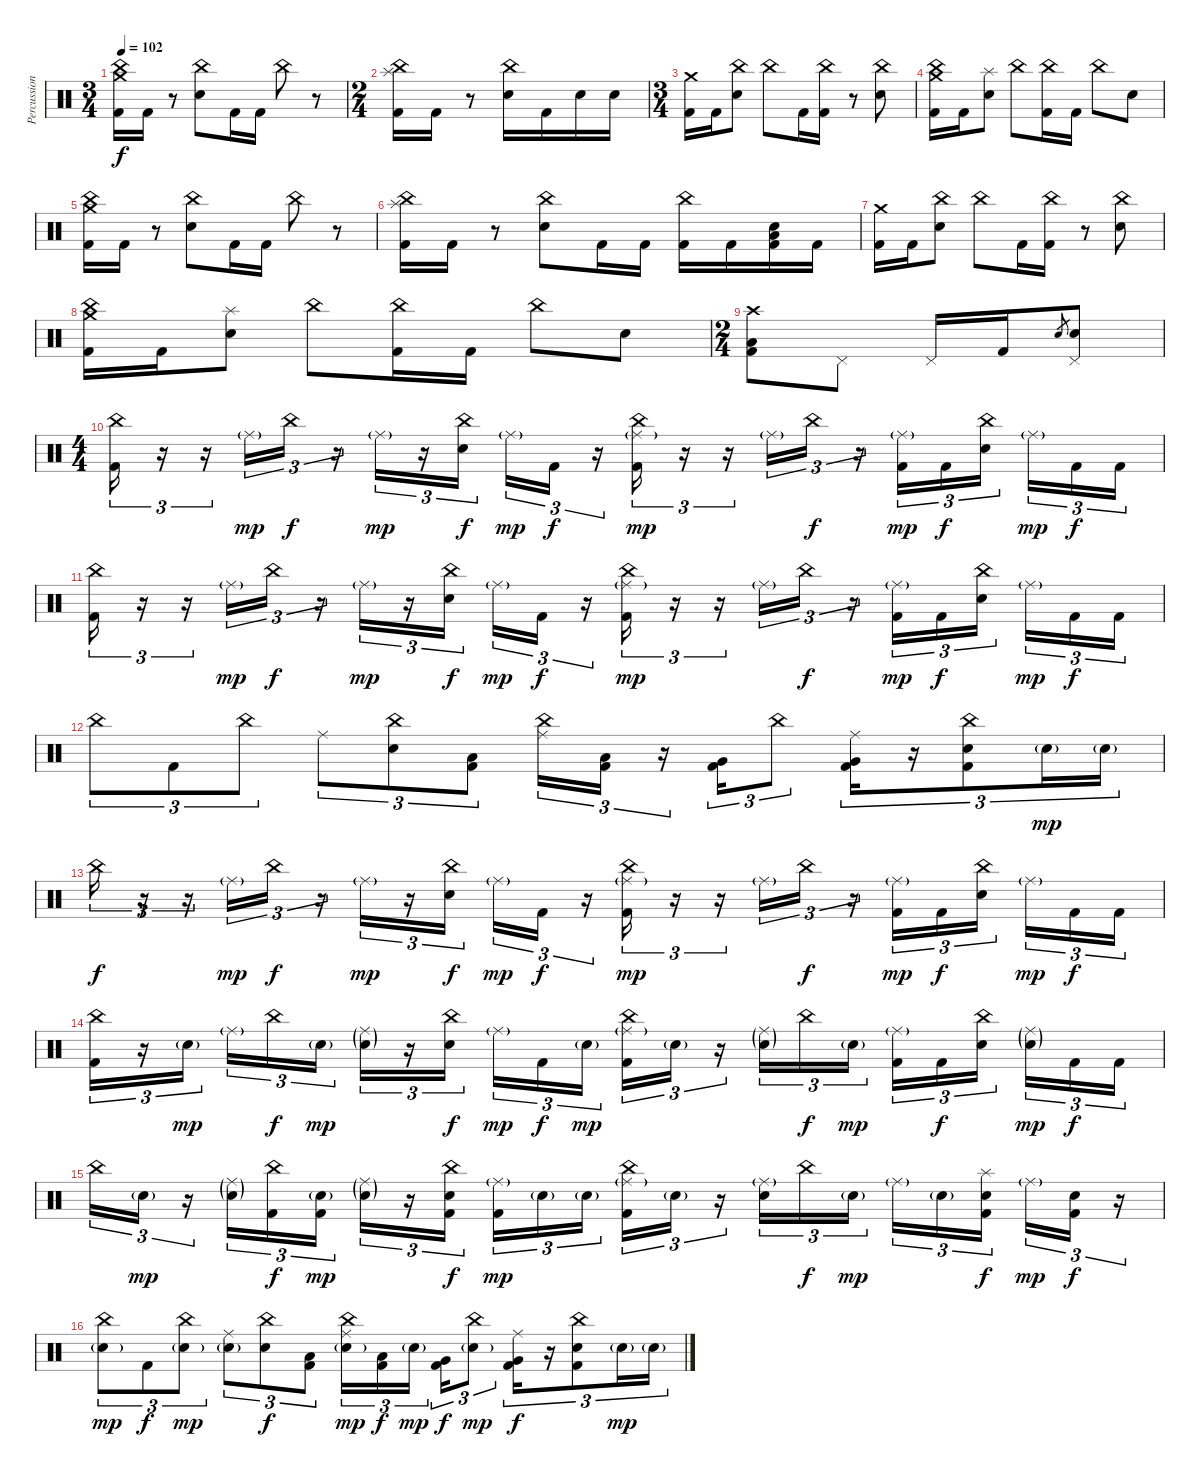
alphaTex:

\track ("Percussion" "Percussion") {instrument percussion}
\staff {score}
\articulation defaults
\ts (3 4)
\tempo 102
\clef neutral
\ks c
("Crash medium (hit)" "China (hit)" "Kick (hit) 2").16{dy f} "Kick (hit) 2".16 r.8 ("China (hit)" "Electric Snare (hit)").8 "Kick (hit) 2".16 "Kick (hit) 2".16 "China (hit)".8 r.8 |
\ts (2 4)
("China (hit)" "Splash (hit)" "Kick (hit) 2").16 "Kick (hit) 2".16 r.8 ("China (hit)" "Electric Snare (hit)").16 "Kick (hit) 2".16 "Electric Snare (hit)".16 "Electric Snare (hit)".16 |
\ts (3 4)
("Crash medium (hit)" "Kick (hit) 2").16 "Kick (hit) 2".16 ("China (hit)" "Electric Snare (hit)").8 "China (hit)".8 "Kick (hit) 2".16 ("China (hit)" "Kick (hit) 2").16 r.8 ("China (hit)" "Electric Snare (hit)").8 |
("Crash medium (hit)" "China (hit)" "Kick (hit) 2").16 "Kick (hit) 2".16 ("Splash (hit)" "Electric Snare (hit)").8 "China (hit)".8 ("China (hit)" "Kick (hit) 2").16 "Kick (hit) 2".16 "China (hit)".8 "Electric Snare (hit)".8 |
("Crash medium (hit)" "China (hit)" "Kick (hit) 2").16 "Kick (hit) 2".16 r.8 ("China (hit)" "Electric Snare (hit)").8 "Kick (hit) 2".16 "Kick (hit) 2".16 "China (hit)".8 r.8 |
("China (hit)" "Splash (hit)" "Kick (hit) 2").16 "Kick (hit) 2".16 r.8 ("China (hit)" "Electric Snare (hit)").8 "Kick (hit) 2".16 "Kick (hit) 2".16 ("China (hit)" "Kick (hit) 2").16 "Kick (hit) 2".16 ("Low Floor Tom (hit)" "Electric Snare (hit)" "Kick (hit) 2").16 "Kick (hit) 2".16 |
("Crash medium (hit)" "Kick (hit) 2").16 "Kick (hit) 2".16 ("China (hit)" "Electric Snare (hit)").8 "China (hit)".8 "Kick (hit) 2".16 ("China (hit)" "Kick (hit) 2").16 r.8 ("China (hit)" "Electric Snare (hit)").8 |
("Crash medium (hit)" "China (hit)" "Kick (hit) 2").16 "Kick (hit) 2".16 ("Splash (hit)" "Electric Snare (hit)").8 "China (hit)".8 ("China (hit)" "Kick (hit) 2").16 "Kick (hit) 2".16 "China (hit)".8 "Electric Snare (hit)".8 |
\ts (2 4)
("Crash high (hit)" "Low Floor Tom (hit)" "Kick (hit) 2").8 "Pedal Hi-Hat (hit)".8 "Pedal Hi-Hat (hit)".16 "Kick (hit) 2".16 "Electric Snare (hit)".8{gr} ("Pedal Hi-Hat (hit)" "Electric Snare (hit)").8 |
\ts (4 4)
("China (hit)" "Kick (hit) 2").16{tu (3 2)} r.16{tu (3 2)} r.16{tu (3 2)} "Ride (middle)"{g}.16{tu (3 2) dy mp} "China (hit)".16{tu (3 2) dy f} r.16{tu (3 2)} "Ride (middle)"{g}.16{tu (3 2) dy mp} r.16{tu (3 2)} ("China (hit)" "Electric Snare (hit)").16{tu (3 2) dy f beam splitsecondary} "Ride (middle)"{g}.16{tu (3 2) dy mp} "Kick (hit) 2".16{tu (3 2) dy f} r.16{tu (3 2)} ("China (hit)" "Ride (middle)"{g} "Kick (hit) 2").16{tu (3 2) dy mp} r.16{tu (3 2)} r.16{tu (3 2)} "Ride (middle)"{g}.16{tu (3 2)} "China (hit)".16{tu (3 2) dy f} r.16{tu (3 2)} ("Ride (middle)"{g} "Kick (hit) 2").16{tu (3 2) dy mp} "Kick (hit) 2".16{tu (3 2) dy f} ("China (hit)" "Electric Snare (hit)").16{tu (3 2) beam splitsecondary} "Ride (middle)"{g}.16{tu (3 2) dy mp} "Kick (hit) 2".16{tu (3 2) dy f} "Kick (hit) 2".16{tu (3 2)} |
("China (hit)" "Kick (hit) 2").16{tu (3 2)} r.16{tu (3 2)} r.16{tu (3 2)} "Ride (middle)"{g}.16{tu (3 2) dy mp} "China (hit)".16{tu (3 2) dy f} r.16{tu (3 2)} "Ride (middle)"{g}.16{tu (3 2) dy mp} r.16{tu (3 2)} ("China (hit)" "Electric Snare (hit)").16{tu (3 2) dy f beam splitsecondary} "Ride (middle)"{g}.16{tu (3 2) dy mp} "Kick (hit) 2".16{tu (3 2) dy f} r.16{tu (3 2)} ("China (hit)" "Ride (middle)"{g} "Kick (hit) 2").16{tu (3 2) dy mp} r.16{tu (3 2)} r.16{tu (3 2)} "Ride (middle)"{g}.16{tu (3 2)} "China (hit)".16{tu (3 2) dy f} r.16{tu (3 2)} ("Ride (middle)"{g} "Kick (hit) 2").16{tu (3 2) dy mp} "Kick (hit) 2".16{tu (3 2) dy f} ("China (hit)" "Electric Snare (hit)").16{tu (3 2) beam splitsecondary} "Ride (middle)"{g}.16{tu (3 2) dy mp} "Kick (hit) 2".16{tu (3 2) dy f} "Kick (hit) 2".16{tu (3 2)} |
"China (hit)".8{tu (3 2)} "Kick (hit) 2".8{tu (3 2)} "China (hit)".8{tu (3 2)} "Ride (middle)".8{tu (3 2)} ("China (hit)" "Electric Snare (hit)").8{tu (3 2)} ("Low Tom (hit)" "Kick (hit) 2").8{tu (3 2)} ("China (hit)" "Ride (middle)").16{tu (3 2)} ("Low Tom (hit)" "Kick (hit) 2").16{tu (3 2)} r.16{tu (3 2)} ("Very Low Tom (hit)" "Kick (hit) 2").16{tu (3 2)} "China (hit)".8{tu (3 2)} ("Ride (middle)" "Very Low Tom (hit)" "Kick (hit) 2").16{tu (3 2)} r.16{tu (3 2)} ("China (hit)" "Electric Snare (hit)" "Kick (hit) 2").8{tu (3 2)} "Electric Snare (hit)"{g}.16{tu (3 2) dy mp} "Electric Snare (hit)"{g}.16{tu (3 2)} |
"China (hit)".16{tu (3 2) dy f} r.16{tu (3 2)} r.16{tu (3 2)} "Ride (middle)"{g}.16{tu (3 2) dy mp} "China (hit)".16{tu (3 2) dy f} r.16{tu (3 2)} "Ride (middle)"{g}.16{tu (3 2) dy mp} r.16{tu (3 2)} ("China (hit)" "Electric Snare (hit)").16{tu (3 2) dy f beam splitsecondary} "Ride (middle)"{g}.16{tu (3 2) dy mp} "Kick (hit) 2".16{tu (3 2) dy f} r.16{tu (3 2)} ("China (hit)" "Ride (middle)"{g} "Kick (hit) 2").16{tu (3 2) dy mp} r.16{tu (3 2)} r.16{tu (3 2)} "Ride (middle)"{g}.16{tu (3 2)} "China (hit)".16{tu (3 2) dy f} r.16{tu (3 2)} ("Ride (middle)"{g} "Kick (hit) 2").16{tu (3 2) dy mp} "Kick (hit) 2".16{tu (3 2) dy f} ("China (hit)" "Electric Snare (hit)").16{tu (3 2) beam splitsecondary} "Ride (middle)"{g}.16{tu (3 2) dy mp} "Kick (hit) 2".16{tu (3 2) dy f} "Kick (hit) 2".16{tu (3 2)} |
("China (hit)" "Kick (hit) 2").16{tu (3 2)} r.16{tu (3 2)} "Electric Snare (hit)"{g}.16{tu (3 2) dy mp beam splitsecondary} "Ride (middle)"{g}.16{tu (3 2)} "China (hit)".16{tu (3 2) dy f} "Electric Snare (hit)"{g}.16{tu (3 2) dy mp} ("Ride (middle)"{g} "Electric Snare (hit)"{g}).16{tu (3 2)} r.16{tu (3 2)} ("China (hit)" "Electric Snare (hit)").16{tu (3 2) dy f beam splitsecondary} "Ride (middle)"{g}.16{tu (3 2) dy mp} "Kick (hit) 2".16{tu (3 2) dy f} "Electric Snare (hit)"{g}.16{tu (3 2) dy mp} ("China (hit)" "Ride (middle)"{g} "Kick (hit) 2").16{tu (3 2)} "Electric Snare (hit)"{g}.16{tu (3 2)} r.16{tu (3 2)} ("Ride (middle)"{g} "Electric Snare (hit)"{g}).16{tu (3 2)} "China (hit)".16{tu (3 2) dy f} "Electric Snare (hit)"{g}.16{tu (3 2) dy mp} ("Ride (middle)"{g} "Kick (hit) 2").16{tu (3 2)} "Kick (hit) 2".16{tu (3 2) dy f} ("China (hit)" "Electric Snare (hit)").16{tu (3 2) beam splitsecondary} ("Ride (middle)"{g} "Electric Snare (hit)"{g}).16{tu (3 2) dy mp} "Kick (hit) 2".16{tu (3 2) dy f} "Kick (hit) 2".16{tu (3 2)} |
"China (hit)".16{tu (3 2)} "Electric Snare (hit)"{g}.16{tu (3 2) dy mp} r.16{tu (3 2)} ("Ride (middle)"{g} "Electric Snare (hit)"{g}).16{tu (3 2)} ("China (hit)" "Kick (hit) 2").16{tu (3 2) dy f} ("Electric Snare (hit)"{g} "Kick (hit) 2").16{tu (3 2) dy mp} ("Ride (middle)"{g} "Electric Snare (hit)"{g}).16{tu (3 2)} r.16{tu (3 2)} ("China (hit)" "Electric Snare (hit)" "Kick (hit) 2").16{tu (3 2) dy f beam splitsecondary} ("Ride (middle)"{g} "Kick (hit) 2").16{tu (3 2) dy mp} "Electric Snare (hit)"{g}.16{tu (3 2)} "Electric Snare (hit)"{g}.16{tu (3 2)} ("China (hit)" "Ride (middle)"{g} "Kick (hit) 2").16{tu (3 2)} "Electric Snare (hit)"{g}.16{tu (3 2)} r.16{tu (3 2)} ("Ride (middle)"{g} "Electric Snare (hit)").16{tu (3 2)} "China (hit)".16{tu (3 2) dy f} "Electric Snare (hit)"{g}.16{tu (3 2) dy mp} "Ride (middle)"{g}.16{tu (3 2)} "Electric Snare (hit)"{g}.16{tu (3 2)} ("Splash (hit)" "Electric Snare (hit)" "Kick (hit) 2").16{tu (3 2) dy f beam splitsecondary} "Ride (middle)"{g}.16{tu (3 2) dy mp} ("Electric Snare (hit)" "Kick (hit) 2").16{tu (3 2) dy f} r.16{tu (3 2)} |
("China (hit)" "Electric Snare (hit)"{g}).8{tu (3 2) dy mp} "Kick (hit) 2".8{tu (3 2) dy f} ("China (hit)" "Electric Snare (hit)"{g}).8{tu (3 2) dy mp} ("Ride (middle)" "Electric Snare (hit)"{g}).8{tu (3 2)} ("China (hit)" "Electric Snare (hit)").8{tu (3 2) dy f} ("Low Tom (hit)" "Kick (hit) 2").8{tu (3 2)} ("China (hit)" "Ride (middle)" "Electric Snare (hit)"{g}).16{tu (3 2) dy mp} ("Low Tom (hit)" "Kick (hit) 2").16{tu (3 2) dy f} "Electric Snare (hit)"{g}.16{tu (3 2) dy mp beam splitsecondary} ("Very Low Tom (hit)" "Kick (hit) 2").16{tu (3 2) dy f} ("China (hit)" "Electric Snare (hit)"{g}).8{tu (3 2) dy mp} ("Ride (middle)" "Very Low Tom (hit)" "Kick (hit) 2").16{tu (3 2) dy f} r.16{tu (3 2)} ("China (hit)" "Electric Snare (hit)" "Kick (hit) 2").8{tu (3 2)} "Electric Snare (hit)"{g}.16{tu (3 2) dy mp} "Electric Snare (hit)"{g}.16{tu (3 2)}
